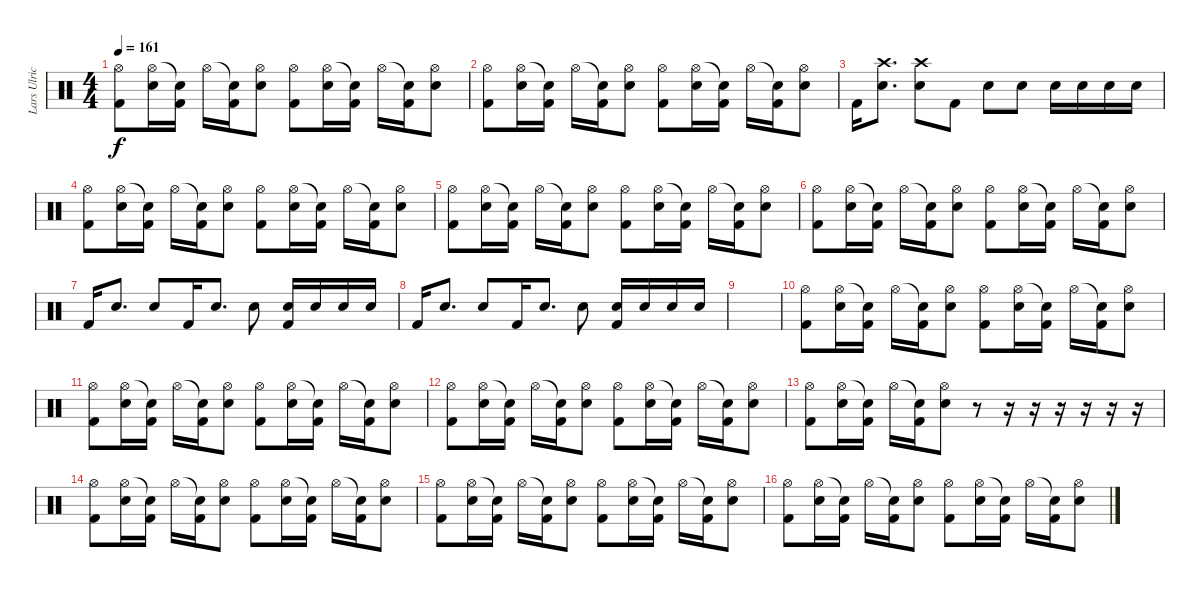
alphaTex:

\track ("Lars Ulrich" "Lars Ulric") {instrument percussion}
\staff {score}
\articulation defaults
\ts (4 4)
\tempo 161
\clef neutral
\ks c
("Hi-Hat (open)" "Kick (hit) 2").8{dy f} ("Hi-Hat (open)" "Electric Snare (hit)").16 ("Snare (hit)"{t} "Kick (hit) 2").16 "Hi-Hat (open)".16 ("Snare (hit)"{t} "Kick (hit) 2").16 ("Hi-Hat (open)" "Electric Snare (hit)").8 ("Hi-Hat (open)" "Kick (hit) 2").8 ("Hi-Hat (open)" "Electric Snare (hit)").16 ("Snare (hit)"{t} "Kick (hit) 2").16 "Hi-Hat (open)".16 ("Snare (hit)"{t} "Kick (hit) 2").16 ("Hi-Hat (open)" "Electric Snare (hit)").8 |
("Hi-Hat (open)" "Kick (hit) 2").8 ("Hi-Hat (open)" "Electric Snare (hit)").16 ("Snare (hit)"{t} "Kick (hit) 2").16 "Hi-Hat (open)".16 ("Snare (hit)"{t} "Kick (hit) 2").16 ("Hi-Hat (open)" "Electric Snare (hit)").8 ("Hi-Hat (open)" "Kick (hit) 2").8 ("Hi-Hat (open)" "Electric Snare (hit)").16 ("Snare (hit)"{t} "Kick (hit) 2").16 "Hi-Hat (open)".16 ("Snare (hit)"{t} "Kick (hit) 2").16 ("Hi-Hat (open)" "Electric Snare (hit)").8 |
"Kick (hit) 2".16 ("Crash high (hit)" "Electric Snare (hit)").8{d} ("Crash high (hit)" "Electric Snare (hit)").8 "Kick (hit) 2".8 "Electric Snare (hit)".8 "Electric Snare (hit)".8 "Electric Snare (hit)".16 "Electric Snare (hit)".16 "Electric Snare (hit)".16 "Electric Snare (hit)".16 |
("Hi-Hat (open)" "Kick (hit) 2").8 ("Hi-Hat (open)" "Electric Snare (hit)").16 ("Snare (hit)"{t} "Kick (hit) 2").16 "Hi-Hat (open)".16 ("Snare (hit)"{t} "Kick (hit) 2").16 ("Hi-Hat (open)" "Electric Snare (hit)").8 ("Hi-Hat (open)" "Kick (hit) 2").8 ("Hi-Hat (open)" "Electric Snare (hit)").16 ("Snare (hit)"{t} "Kick (hit) 2").16 "Hi-Hat (open)".16 ("Snare (hit)"{t} "Kick (hit) 2").16 ("Hi-Hat (open)" "Electric Snare (hit)").8 |
("Hi-Hat (open)" "Kick (hit) 2").8 ("Hi-Hat (open)" "Electric Snare (hit)").16 ("Snare (hit)"{t} "Kick (hit) 2").16 "Hi-Hat (open)".16 ("Snare (hit)"{t} "Kick (hit) 2").16 ("Hi-Hat (open)" "Electric Snare (hit)").8 ("Hi-Hat (open)" "Kick (hit) 2").8 ("Hi-Hat (open)" "Electric Snare (hit)").16 ("Snare (hit)"{t} "Kick (hit) 2").16 "Hi-Hat (open)".16 ("Snare (hit)"{t} "Kick (hit) 2").16 ("Hi-Hat (open)" "Electric Snare (hit)").8 |
("Hi-Hat (open)" "Kick (hit) 2").8 ("Hi-Hat (open)" "Electric Snare (hit)").16 ("Snare (hit)"{t} "Kick (hit) 2").16 "Hi-Hat (open)".16 ("Snare (hit)"{t} "Kick (hit) 2").16 ("Hi-Hat (open)" "Electric Snare (hit)").8 ("Hi-Hat (open)" "Kick (hit) 2").8 ("Hi-Hat (open)" "Electric Snare (hit)").16 ("Snare (hit)"{t} "Kick (hit) 2").16 "Hi-Hat (open)".16 ("Snare (hit)"{t} "Kick (hit) 2").16 ("Hi-Hat (open)" "Electric Snare (hit)").8 |
"Kick (hit) 2".16 "Electric Snare (hit)".8{d} "Electric Snare (hit)".8 "Kick (hit) 2".16 "Electric Snare (hit)".8{d} "Electric Snare (hit)".8 ("Electric Snare (hit)" "Kick (hit) 2").16 "Electric Snare (hit)".16 "Electric Snare (hit)".16 "Electric Snare (hit)".16 |
"Kick (hit) 2".16 "Electric Snare (hit)".8{d} "Electric Snare (hit)".8 "Kick (hit) 2".16 "Electric Snare (hit)".8{d} "Electric Snare (hit)".8 ("Electric Snare (hit)" "Kick (hit) 2").16 "Electric Snare (hit)".16 "Electric Snare (hit)".16 "Electric Snare (hit)".16 |
|
("Hi-Hat (open)" "Kick (hit) 2").8 ("Hi-Hat (open)" "Electric Snare (hit)").16 ("Snare (hit)"{t} "Kick (hit) 2").16 "Hi-Hat (open)".16 ("Snare (hit)"{t} "Kick (hit) 2").16 ("Hi-Hat (open)" "Electric Snare (hit)").8 ("Hi-Hat (open)" "Kick (hit) 2").8 ("Hi-Hat (open)" "Electric Snare (hit)").16 ("Snare (hit)"{t} "Kick (hit) 2").16 "Hi-Hat (open)".16 ("Snare (hit)"{t} "Kick (hit) 2").16 ("Hi-Hat (open)" "Electric Snare (hit)").8 |
("Hi-Hat (open)" "Kick (hit) 2").8 ("Hi-Hat (open)" "Electric Snare (hit)").16 ("Snare (hit)"{t} "Kick (hit) 2").16 "Hi-Hat (open)".16 ("Snare (hit)"{t} "Kick (hit) 2").16 ("Hi-Hat (open)" "Electric Snare (hit)").8 ("Hi-Hat (open)" "Kick (hit) 2").8 ("Hi-Hat (open)" "Electric Snare (hit)").16 ("Snare (hit)"{t} "Kick (hit) 2").16 "Hi-Hat (open)".16 ("Snare (hit)"{t} "Kick (hit) 2").16 ("Hi-Hat (open)" "Electric Snare (hit)").8 |
("Hi-Hat (open)" "Kick (hit) 2").8 ("Hi-Hat (open)" "Electric Snare (hit)").16 ("Snare (hit)"{t} "Kick (hit) 2").16 "Hi-Hat (open)".16 ("Snare (hit)"{t} "Kick (hit) 2").16 ("Hi-Hat (open)" "Electric Snare (hit)").8 ("Hi-Hat (open)" "Kick (hit) 2").8 ("Hi-Hat (open)" "Electric Snare (hit)").16 ("Snare (hit)"{t} "Kick (hit) 2").16 "Hi-Hat (open)".16 ("Snare (hit)"{t} "Kick (hit) 2").16 ("Hi-Hat (open)" "Electric Snare (hit)").8 |
("Hi-Hat (open)" "Kick (hit) 2").8 ("Hi-Hat (open)" "Electric Snare (hit)").16 ("Snare (hit)"{t} "Kick (hit) 2").16 "Hi-Hat (open)".16 ("Snare (hit)"{t} "Kick (hit) 2").16 ("Hi-Hat (open)" "Electric Snare (hit)").8 r.8 r.16 r.16 r.16 r.16 r.16 r.16 |
("Hi-Hat (open)" "Kick (hit) 2").8 ("Hi-Hat (open)" "Electric Snare (hit)").16 ("Snare (hit)"{t} "Kick (hit) 2").16 "Hi-Hat (open)".16 ("Snare (hit)"{t} "Kick (hit) 2").16 ("Hi-Hat (open)" "Electric Snare (hit)").8 ("Hi-Hat (open)" "Kick (hit) 2").8 ("Hi-Hat (open)" "Electric Snare (hit)").16 ("Snare (hit)"{t} "Kick (hit) 2").16 "Hi-Hat (open)".16 ("Snare (hit)"{t} "Kick (hit) 2").16 ("Hi-Hat (open)" "Electric Snare (hit)").8 |
("Hi-Hat (open)" "Kick (hit) 2").8 ("Hi-Hat (open)" "Electric Snare (hit)").16 ("Snare (hit)"{t} "Kick (hit) 2").16 "Hi-Hat (open)".16 ("Snare (hit)"{t} "Kick (hit) 2").16 ("Hi-Hat (open)" "Electric Snare (hit)").8 ("Hi-Hat (open)" "Kick (hit) 2").8 ("Hi-Hat (open)" "Electric Snare (hit)").16 ("Snare (hit)"{t} "Kick (hit) 2").16 "Hi-Hat (open)".16 ("Snare (hit)"{t} "Kick (hit) 2").16 ("Hi-Hat (open)" "Electric Snare (hit)").8 |
("Hi-Hat (open)" "Kick (hit) 2").8 ("Hi-Hat (open)" "Electric Snare (hit)").16 ("Snare (hit)"{t} "Kick (hit) 2").16 "Hi-Hat (open)".16 ("Snare (hit)"{t} "Kick (hit) 2").16 ("Hi-Hat (open)" "Electric Snare (hit)").8 ("Hi-Hat (open)" "Kick (hit) 2").8 ("Hi-Hat (open)" "Electric Snare (hit)").16 ("Snare (hit)"{t} "Kick (hit) 2").16 "Hi-Hat (open)".16 ("Snare (hit)"{t} "Kick (hit) 2").16 ("Hi-Hat (open)" "Electric Snare (hit)").8
